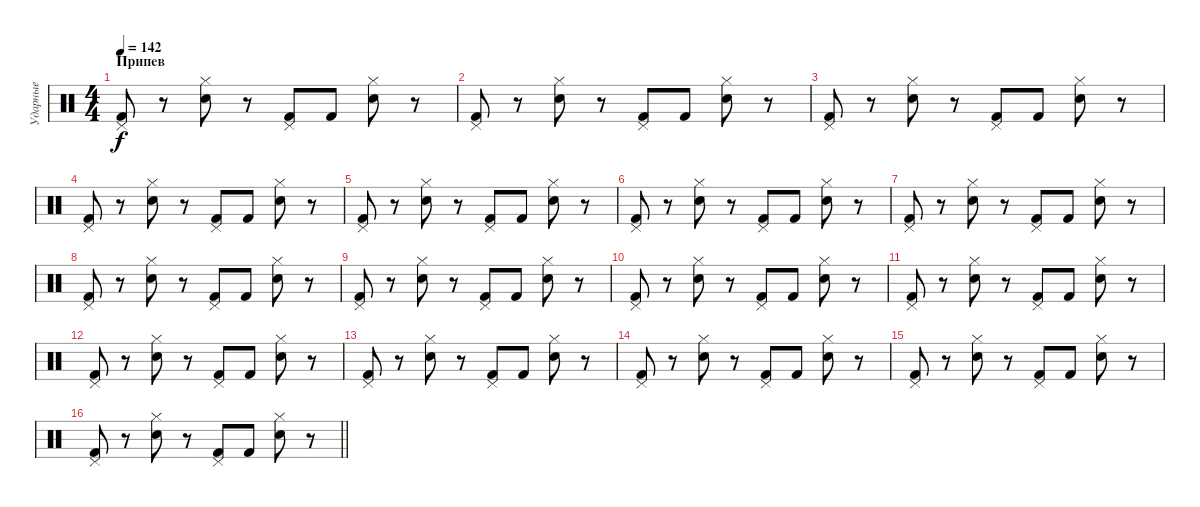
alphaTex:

\track ("Ударные" "Ударные") {instrument percussion}
\staff {score}
\articulation defaults
\ts (4 4)
\section ("" "Припев")
\tempo 142
\clef neutral
\ks c
("Pedal Hi-Hat (hit)" "Kick (hit) 2").8{dy f} r.8 ("Hi-Hat (closed)" "Electric Snare (hit)").8 r.8 ("Pedal Hi-Hat (hit)" "Kick (hit) 2").8 "Kick (hit) 2".8 ("Hi-Hat (closed)" "Electric Snare (hit)").8 r.8 |
("Pedal Hi-Hat (hit)" "Kick (hit) 2").8 r.8 ("Hi-Hat (closed)" "Electric Snare (hit)").8 r.8 ("Pedal Hi-Hat (hit)" "Kick (hit) 2").8 "Kick (hit) 2".8 ("Hi-Hat (closed)" "Electric Snare (hit)").8 r.8 |
("Pedal Hi-Hat (hit)" "Kick (hit) 2").8 r.8 ("Hi-Hat (closed)" "Electric Snare (hit)").8 r.8 ("Pedal Hi-Hat (hit)" "Kick (hit) 2").8 "Kick (hit) 2".8 ("Hi-Hat (closed)" "Electric Snare (hit)").8 r.8 |
("Pedal Hi-Hat (hit)" "Kick (hit) 2").8 r.8 ("Hi-Hat (closed)" "Electric Snare (hit)").8 r.8 ("Pedal Hi-Hat (hit)" "Kick (hit) 2").8 "Kick (hit) 2".8 ("Hi-Hat (closed)" "Electric Snare (hit)").8 r.8 |
("Pedal Hi-Hat (hit)" "Kick (hit) 2").8 r.8 ("Hi-Hat (closed)" "Electric Snare (hit)").8 r.8 ("Pedal Hi-Hat (hit)" "Kick (hit) 2").8 "Kick (hit) 2".8 ("Hi-Hat (closed)" "Electric Snare (hit)").8 r.8 |
("Pedal Hi-Hat (hit)" "Kick (hit) 2").8 r.8 ("Hi-Hat (closed)" "Electric Snare (hit)").8 r.8 ("Pedal Hi-Hat (hit)" "Kick (hit) 2").8 "Kick (hit) 2".8 ("Hi-Hat (closed)" "Electric Snare (hit)").8 r.8 |
("Pedal Hi-Hat (hit)" "Kick (hit) 2").8 r.8 ("Hi-Hat (closed)" "Electric Snare (hit)").8 r.8 ("Pedal Hi-Hat (hit)" "Kick (hit) 2").8 "Kick (hit) 2".8 ("Hi-Hat (closed)" "Electric Snare (hit)").8 r.8 |
("Pedal Hi-Hat (hit)" "Kick (hit) 2").8 r.8 ("Hi-Hat (closed)" "Electric Snare (hit)").8 r.8 ("Pedal Hi-Hat (hit)" "Kick (hit) 2").8 "Kick (hit) 2".8 ("Hi-Hat (closed)" "Electric Snare (hit)").8 r.8 |
("Pedal Hi-Hat (hit)" "Kick (hit) 2").8 r.8 ("Hi-Hat (closed)" "Electric Snare (hit)").8 r.8 ("Pedal Hi-Hat (hit)" "Kick (hit) 2").8 "Kick (hit) 2".8 ("Hi-Hat (closed)" "Electric Snare (hit)").8 r.8 |
("Pedal Hi-Hat (hit)" "Kick (hit) 2").8 r.8 ("Hi-Hat (closed)" "Electric Snare (hit)").8 r.8 ("Pedal Hi-Hat (hit)" "Kick (hit) 2").8 "Kick (hit) 2".8 ("Hi-Hat (closed)" "Electric Snare (hit)").8 r.8 |
("Pedal Hi-Hat (hit)" "Kick (hit) 2").8 r.8 ("Hi-Hat (closed)" "Electric Snare (hit)").8 r.8 ("Pedal Hi-Hat (hit)" "Kick (hit) 2").8 "Kick (hit) 2".8 ("Hi-Hat (closed)" "Electric Snare (hit)").8 r.8 |
("Pedal Hi-Hat (hit)" "Kick (hit) 2").8 r.8 ("Hi-Hat (closed)" "Electric Snare (hit)").8 r.8 ("Pedal Hi-Hat (hit)" "Kick (hit) 2").8 "Kick (hit) 2".8 ("Hi-Hat (closed)" "Electric Snare (hit)").8 r.8 |
("Pedal Hi-Hat (hit)" "Kick (hit) 2").8 r.8 ("Hi-Hat (closed)" "Electric Snare (hit)").8 r.8 ("Pedal Hi-Hat (hit)" "Kick (hit) 2").8 "Kick (hit) 2".8 ("Hi-Hat (closed)" "Electric Snare (hit)").8 r.8 |
("Pedal Hi-Hat (hit)" "Kick (hit) 2").8 r.8 ("Hi-Hat (closed)" "Electric Snare (hit)").8 r.8 ("Pedal Hi-Hat (hit)" "Kick (hit) 2").8 "Kick (hit) 2".8 ("Hi-Hat (closed)" "Electric Snare (hit)").8 r.8 |
("Pedal Hi-Hat (hit)" "Kick (hit) 2").8 r.8 ("Hi-Hat (closed)" "Electric Snare (hit)").8 r.8 ("Pedal Hi-Hat (hit)" "Kick (hit) 2").8 "Kick (hit) 2".8 ("Hi-Hat (closed)" "Electric Snare (hit)").8 r.8 |
\barLineRight lightlight
("Pedal Hi-Hat (hit)" "Kick (hit) 2").8 r.8 ("Hi-Hat (closed)" "Electric Snare (hit)").8 r.8 ("Pedal Hi-Hat (hit)" "Kick (hit) 2").8 "Kick (hit) 2".8 ("Hi-Hat (closed)" "Electric Snare (hit)").8 r.8
